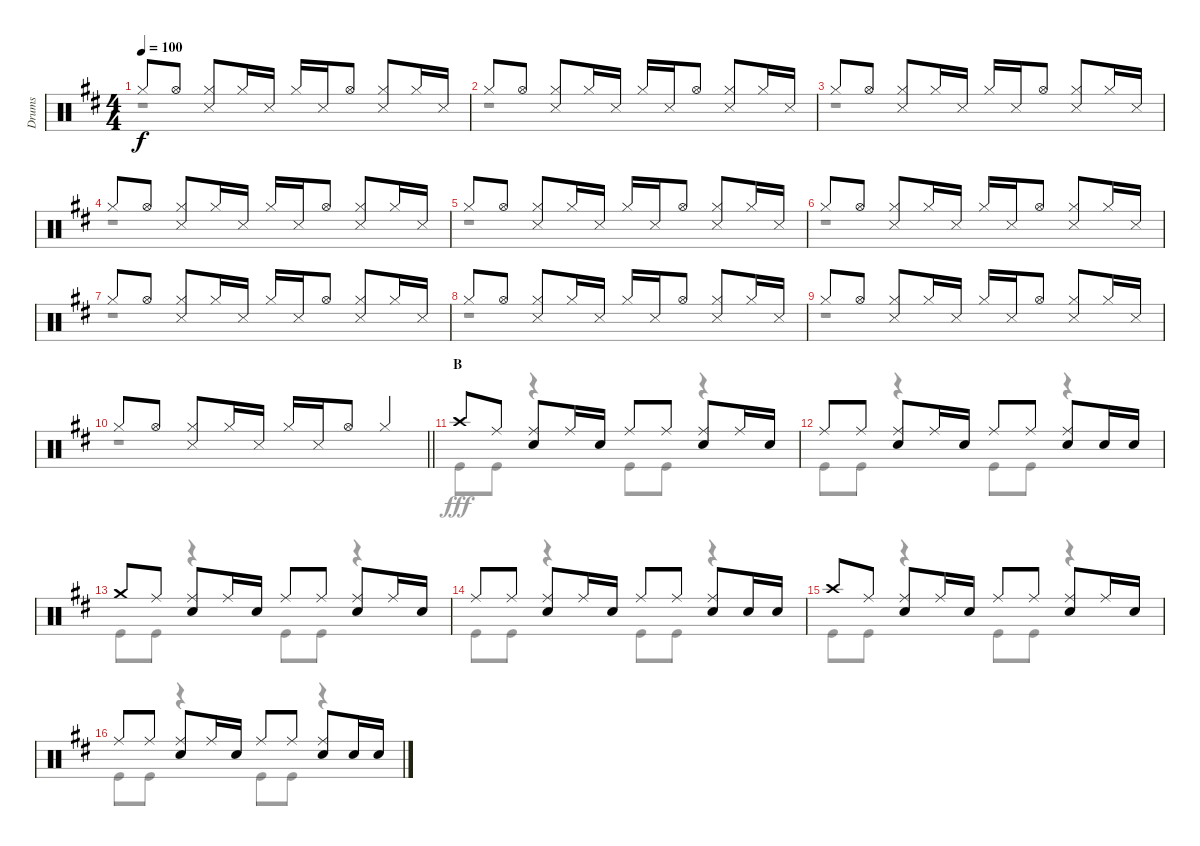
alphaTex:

\track ("Drums" "Drums") {instrument percussion}
\staff {score}
\articulation defaults
\voice
\ts (4 4)
\tempo 100
\clef neutral
\ks d "Hi-Hat (closed)".8{dy f} "Hi-Hat (open)".8
("Hi-Hat (closed)" "Snare (side stick) 3").8 "Hi-Hat (closed)".16 "Snare (side stick) 3".16 "Hi-Hat (closed)".16 "Snare (side stick) 3".16 "Hi-Hat (open)".8 ("Hi-Hat (closed)" "Snare (side stick) 3").8 "Hi-Hat (closed)".16 "Snare (side stick) 3".16 |
"Hi-Hat (closed)".8 "Hi-Hat (open)".8 ("Hi-Hat (closed)" "Snare (side stick) 3").8 "Hi-Hat (closed)".16 "Snare (side stick) 3".16 "Hi-Hat (closed)".16 "Snare (side stick) 3".16 "Hi-Hat (open)".8 ("Hi-Hat (closed)" "Snare (side stick) 3").8 "Hi-Hat (closed)".16 "Snare (side stick) 3".16 |
"Hi-Hat (closed)".8 "Hi-Hat (open)".8 ("Hi-Hat (closed)" "Snare (side stick) 3").8 "Hi-Hat (closed)".16 "Snare (side stick) 3".16 "Hi-Hat (closed)".16 "Snare (side stick) 3".16 "Hi-Hat (open)".8 ("Hi-Hat (closed)" "Snare (side stick) 3").8 "Hi-Hat (closed)".16 "Snare (side stick) 3".16 |
"Hi-Hat (closed)".8 "Hi-Hat (open)".8 ("Hi-Hat (closed)" "Snare (side stick) 3").8 "Hi-Hat (closed)".16 "Snare (side stick) 3".16 "Hi-Hat (closed)".16 "Snare (side stick) 3".16 "Hi-Hat (open)".8 ("Hi-Hat (closed)" "Snare (side stick) 3").8 "Hi-Hat (closed)".16 "Snare (side stick) 3".16 |
"Hi-Hat (closed)".8 "Hi-Hat (open)".8 ("Hi-Hat (closed)" "Snare (side stick) 3").8 "Hi-Hat (closed)".16 "Snare (side stick) 3".16 "Hi-Hat (closed)".16 "Snare (side stick) 3".16 "Hi-Hat (open)".8 ("Hi-Hat (closed)" "Snare (side stick) 3").8 "Hi-Hat (closed)".16 "Snare (side stick) 3".16 |
"Hi-Hat (closed)".8 "Hi-Hat (open)".8 ("Hi-Hat (closed)" "Snare (side stick) 3").8 "Hi-Hat (closed)".16 "Snare (side stick) 3".16 "Hi-Hat (closed)".16 "Snare (side stick) 3".16 "Hi-Hat (open)".8 ("Hi-Hat (closed)" "Snare (side stick) 3").8 "Hi-Hat (closed)".16 "Snare (side stick) 3".16 |
"Hi-Hat (closed)".8 "Hi-Hat (open)".8 ("Hi-Hat (closed)" "Snare (side stick) 3").8 "Hi-Hat (closed)".16 "Snare (side stick) 3".16 "Hi-Hat (closed)".16 "Snare (side stick) 3".16 "Hi-Hat (open)".8 ("Hi-Hat (closed)" "Snare (side stick) 3").8 "Hi-Hat (closed)".16 "Snare (side stick) 3".16 |
"Hi-Hat (closed)".8 "Hi-Hat (open)".8 ("Hi-Hat (closed)" "Snare (side stick) 3").8 "Hi-Hat (closed)".16 "Snare (side stick) 3".16 "Hi-Hat (closed)".16 "Snare (side stick) 3".16 "Hi-Hat (open)".8 ("Hi-Hat (closed)" "Snare (side stick) 3").8 "Hi-Hat (closed)".16 "Snare (side stick) 3".16 |
"Hi-Hat (closed)".8 "Hi-Hat (open)".8 ("Hi-Hat (closed)" "Snare (side stick) 3").8 "Hi-Hat (closed)".16 "Snare (side stick) 3".16 "Hi-Hat (closed)".16 "Snare (side stick) 3".16 "Hi-Hat (open)".8 ("Hi-Hat (closed)" "Snare (side stick) 3").8 "Hi-Hat (closed)".16 "Snare (side stick) 3".16 |
\barLineRight lightlight "Hi-Hat (closed)".8 "Hi-Hat (open)".8
("Hi-Hat (closed)" "Snare (side stick) 3").8 "Hi-Hat (closed)".16 "Snare (side stick) 3".16 "Hi-Hat (closed)".16 "Snare (side stick) 3".16 "Hi-Hat (open)".8 "Hi-Hat (closed)".4 |
\section ("" "B")
"Crash high (hit)".8 "Ride (middle)".8 ("Ride (middle)" "Snare (hit) 2").8 "Ride (middle)".16 "Snare (hit) 2".16 "Ride (middle)".8 "Ride (middle)".8 ("Ride (middle)" "Snare (hit) 2").8 "Ride (middle)".16 "Snare (hit) 2".16 |
"Ride (middle)".8 "Ride (middle)".8 ("Ride (middle)" "Snare (hit) 2").8 "Ride (middle)".16 "Snare (hit) 2".16 "Ride (middle)".8 "Ride (middle)".8 ("Ride (middle)" "Snare (hit) 2").8 "Snare (hit) 2".16 "Snare (hit) 2".16 |
"Crash medium (hit)".8 "Ride (middle)".8 ("Ride (middle)" "Snare (hit) 2").8 "Ride (middle)".16 "Snare (hit) 2".16 "Ride (middle)".8 "Ride (middle)".8 ("Ride (middle)" "Snare (hit) 2").8 "Ride (middle)".16 "Snare (hit) 2".16 |
"Ride (middle)".8 "Ride (middle)".8 ("Ride (middle)" "Snare (hit) 2").8 "Ride (middle)".16 "Snare (hit) 2".16 "Ride (middle)".8 "Ride (middle)".8 ("Ride (middle)" "Snare (hit) 2").8 "Snare (hit) 2".16 "Snare (hit) 2".16 |
"Crash high (hit)".8 "Ride (middle)".8 ("Ride (middle)" "Snare (hit) 2").8 "Ride (middle)".16 "Snare (hit) 2".16 "Ride (middle)".8 "Ride (middle)".8 ("Ride (middle)" "Snare (hit) 2").8 "Ride (middle)".16 "Snare (hit) 2".16 |
"Ride (middle)".8 "Ride (middle)".8 ("Ride (middle)" "Snare (hit) 2").8 "Ride (middle)".16 "Snare (hit) 2".16 "Ride (middle)".8 "Ride (middle)".8 ("Ride (middle)" "Snare (hit) 2").8 "Snare (hit) 2".16 "Snare (hit) 2".16
\voice
\clef neutral
\ottava regular
\simile none
\ks d
r.1{dy fff} |
r.1 |
r.1 |
r.1 |
r.1 |
r.1 |
r.1 |
r.1 |
r.1 |
\barLineRight lightlight
r.1 |
"Kick (hit)".8 "Kick (hit)".8 r.4 "Kick (hit)".8 "Kick (hit)".8 r.4 |
"Kick (hit)".8 "Kick (hit)".8 r.4 "Kick (hit)".8 "Kick (hit)".8 r.4 |
"Kick (hit)".8 "Kick (hit)".8 r.4 "Kick (hit)".8 "Kick (hit)".8 r.4 |
"Kick (hit)".8 "Kick (hit)".8 r.4 "Kick (hit)".8 "Kick (hit)".8 r.4 |
"Kick (hit)".8 "Kick (hit)".8 r.4 "Kick (hit)".8 "Kick (hit)".8 r.4 |
"Kick (hit)".8 "Kick (hit)".8 r.4 "Kick (hit)".8 "Kick (hit)".8 r.4
